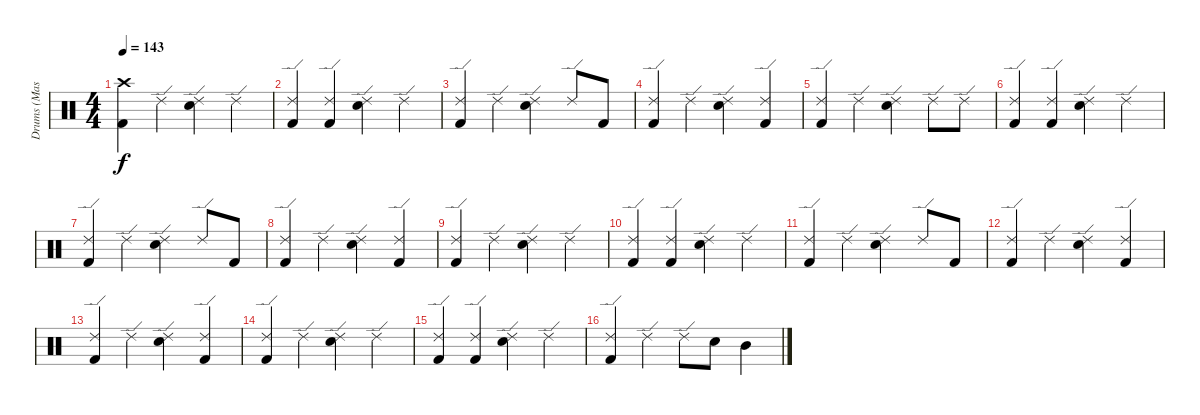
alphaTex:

\track ("Drums (Mason)" "Drums (Mas") {instrument percussion}
\staff {score}
\articulation defaults
\ts (4 4)
\tempo 143
\clef neutral
\ks c
("Crash high (hit)" "Kick (hit) 2").4{dy f} "Ride (edge) 2".4 ("Ride (edge) 2" "Electric Snare (hit)").4 "Ride (edge) 2".4 |
("Ride (edge) 2" "Kick (hit) 2").4 ("Ride (edge) 2" "Kick (hit) 2").4 ("Ride (edge) 2" "Electric Snare (hit)").4 "Ride (edge) 2".4 |
("Ride (edge) 2" "Kick (hit) 2").4 "Ride (edge) 2".4 ("Ride (edge) 2" "Electric Snare (hit)").4 "Ride (edge) 2".8 "Kick (hit) 2".8 |
("Ride (edge) 2" "Kick (hit) 2").4 "Ride (edge) 2".4 ("Ride (edge) 2" "Electric Snare (hit)").4 ("Ride (edge) 2" "Kick (hit) 2").4 |
("Ride (edge) 2" "Kick (hit) 2").4 "Ride (edge) 2".4 ("Ride (edge) 2" "Electric Snare (hit)").4 "Ride (edge) 2".8 "Ride (edge) 2".8 |
("Ride (edge) 2" "Kick (hit) 2").4 ("Ride (edge) 2" "Kick (hit) 2").4 ("Ride (edge) 2" "Electric Snare (hit)").4 "Ride (edge) 2".4 |
("Ride (edge) 2" "Kick (hit) 2").4 "Ride (edge) 2".4 ("Ride (edge) 2" "Electric Snare (hit)").4 "Ride (edge) 2".8 "Kick (hit) 2".8 |
("Ride (edge) 2" "Kick (hit) 2").4 "Ride (edge) 2".4 ("Ride (edge) 2" "Electric Snare (hit)").4 ("Ride (edge) 2" "Kick (hit) 2").4 |
("Ride (edge) 2" "Kick (hit) 2").4 "Ride (edge) 2".4 ("Ride (edge) 2" "Electric Snare (hit)").4 "Ride (edge) 2".4 |
("Ride (edge) 2" "Kick (hit) 2").4 ("Ride (edge) 2" "Kick (hit) 2").4 ("Ride (edge) 2" "Electric Snare (hit)").4 "Ride (edge) 2".4 |
("Ride (edge) 2" "Kick (hit) 2").4 "Ride (edge) 2".4 ("Ride (edge) 2" "Electric Snare (hit)").4 "Ride (edge) 2".8 "Kick (hit) 2".8 |
("Ride (edge) 2" "Kick (hit) 2").4 "Ride (edge) 2".4 ("Ride (edge) 2" "Electric Snare (hit)").4 ("Ride (edge) 2" "Kick (hit) 2").4 |
("Ride (edge) 2" "Kick (hit) 2").4 "Ride (edge) 2".4 ("Ride (edge) 2" "Electric Snare (hit)").4 ("Ride (edge) 2" "Kick (hit) 2").4 |
("Ride (edge) 2" "Kick (hit) 2").4 "Ride (edge) 2".4 ("Ride (edge) 2" "Electric Snare (hit)").4 "Ride (edge) 2".4 |
("Ride (edge) 2" "Kick (hit) 2").4 ("Ride (edge) 2" "Kick (hit) 2").4 ("Ride (edge) 2" "Electric Snare (hit)").4 "Ride (edge) 2".4 |
("Ride (edge) 2" "Kick (hit) 2").4 "Ride (edge) 2".4 "Ride (edge) 2".8 "Electric Snare (hit)".8 "Mid Tom (hit)".4
